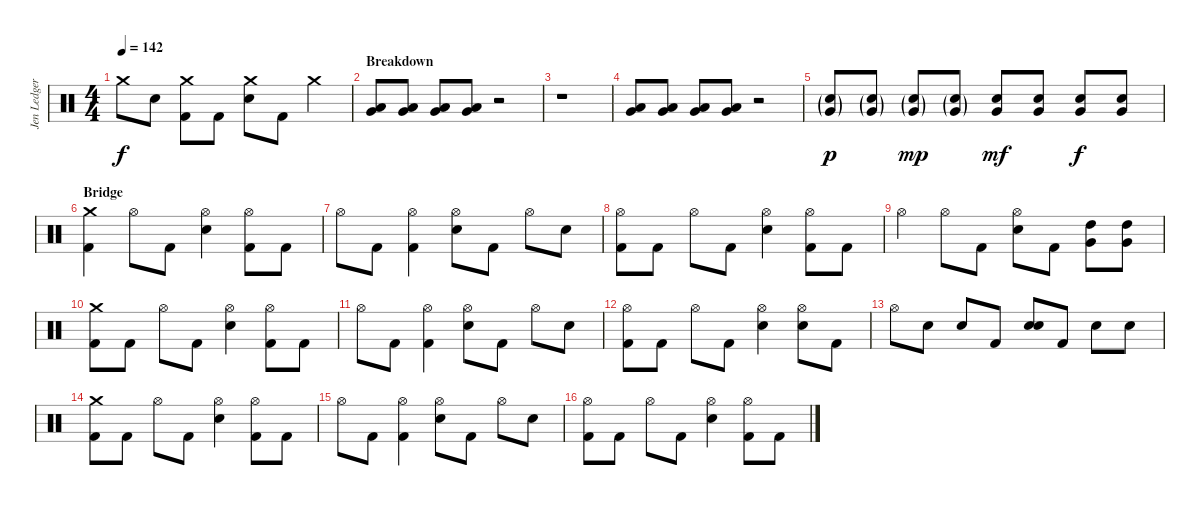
\track ("Jen Ledger" "Jen Ledger") {instrument percussion}
\staff {score}
\articulation defaults
\ts (4 4)
\tempo 142
\clef neutral
\ks c "Crash medium (hit)".8{dy f} "Electric Snare (hit)".8
("Crash medium (hit)" "Kick (hit) 2").8 "Kick (hit) 2".8 ("Crash medium (hit)" "Electric Snare (hit)").8 "Kick (hit) 2".8 "Crash medium (hit)".4 |
\section ("" "Breakdown")
("Very Low Tom (hit)" "Low Floor Tom (hit)").8 ("Very Low Tom (hit)" "Low Floor Tom (hit)").8 ("Very Low Tom (hit)" "Low Floor Tom (hit)").8 ("Very Low Tom (hit)" "Low Floor Tom (hit)").8 r.2 |
r.1 |
("Very Low Tom (hit)" "Low Floor Tom (hit)").8 ("Very Low Tom (hit)" "Low Floor Tom (hit)").8 ("Very Low Tom (hit)" "Low Floor Tom (hit)").8 ("Very Low Tom (hit)" "Low Floor Tom (hit)").8 r.2 |
("Electric Snare (hit)"{g} "Very Low Tom (hit)"{g}).8{dy p} ("Electric Snare (hit)"{g} "Very Low Tom (hit)"{g}).8 ("Electric Snare (hit)"{g} "Very Low Tom (hit)"{g}).8{dy mp} ("Electric Snare (hit)"{g} "Very Low Tom (hit)"{g}).8 ("Electric Snare (hit)" "Very Low Tom (hit)").8{dy mf} ("Electric Snare (hit)" "Very Low Tom (hit)").8 ("Electric Snare (hit)" "Very Low Tom (hit)").8{dy f} ("Electric Snare (hit)" "Very Low Tom (hit)").8 |
\section ("" "Bridge")
("Crash medium (hit)" "Kick (hit) 2").4 "Hi-Hat (open)".8 "Kick (hit) 2".8 ("Hi-Hat (open)" "Electric Snare (hit)").4 ("Hi-Hat (open)" "Kick (hit) 2").8 "Kick (hit) 2".8 |
"Hi-Hat (open)".8 "Kick (hit) 2".8 ("Hi-Hat (open)" "Kick (hit) 2").4 ("Hi-Hat (open)" "Electric Snare (hit)").8 "Kick (hit) 2".8 "Hi-Hat (open)".8 "Electric Snare (hit)".8 |
("Hi-Hat (open)" "Kick (hit) 2").8 "Kick (hit) 2".8 "Hi-Hat (open)".8 "Kick (hit) 2".8 ("Hi-Hat (open)" "Electric Snare (hit)").4 ("Hi-Hat (open)" "Kick (hit) 2").8 "Kick (hit) 2".8 |
"Hi-Hat (open)".4 "Hi-Hat (open)".8 "Kick (hit) 2".8 ("Hi-Hat (open)" "Electric Snare (hit)").8 "Kick (hit) 2".8 ("High Tom (hit)" "Very Low Tom (hit)").8 ("High Tom (hit)" "Very Low Tom (hit)").8 |
("Crash medium (hit)" "Kick (hit) 2").8 "Kick (hit) 2".8 "Hi-Hat (open)".8 "Kick (hit) 2".8 ("Hi-Hat (open)" "Electric Snare (hit)").4 ("Hi-Hat (open)" "Kick (hit) 2").8 "Kick (hit) 2".8 |
"Hi-Hat (open)".8 "Kick (hit) 2".8 ("Hi-Hat (open)" "Kick (hit) 2").4 ("Hi-Hat (open)" "Electric Snare (hit)").8 "Kick (hit) 2".8 "Hi-Hat (open)".8 "Electric Snare (hit)".8 |
("Hi-Hat (open)" "Kick (hit) 2").8 "Kick (hit) 2".8 "Hi-Hat (open)".8 "Kick (hit) 2".8 ("Hi-Hat (open)" "Electric Snare (hit)").4 ("Hi-Hat (open)" "Electric Snare (hit)").8 "Kick (hit) 2".8 |
"Hi-Hat (open)".8 "Electric Snare (hit)".8 "Electric Snare (hit)".8 "Kick (hit) 2".8 ("Electric Snare (hit)" "Electric Snare (hit)").8{bd 60} "Kick (hit) 2".8 "Electric Snare (hit)".8 "Electric Snare (hit)".8 |
("Crash medium (hit)" "Kick (hit) 2").8 "Kick (hit) 2".8 "Hi-Hat (open)".8 "Kick (hit) 2".8 ("Hi-Hat (open)" "Electric Snare (hit)").4 ("Hi-Hat (open)" "Kick (hit) 2").8 "Kick (hit) 2".8 |
"Hi-Hat (open)".8 "Kick (hit) 2".8 ("Hi-Hat (open)" "Kick (hit) 2").4 ("Hi-Hat (open)" "Electric Snare (hit)").8 "Kick (hit) 2".8 "Hi-Hat (open)".8 "Electric Snare (hit)".8 |
("Hi-Hat (open)" "Kick (hit) 2").8 "Kick (hit) 2".8 "Hi-Hat (open)".8 "Kick (hit) 2".8 ("Hi-Hat (open)" "Electric Snare (hit)").4 ("Hi-Hat (open)" "Kick (hit) 2").8 "Kick (hit) 2".8
